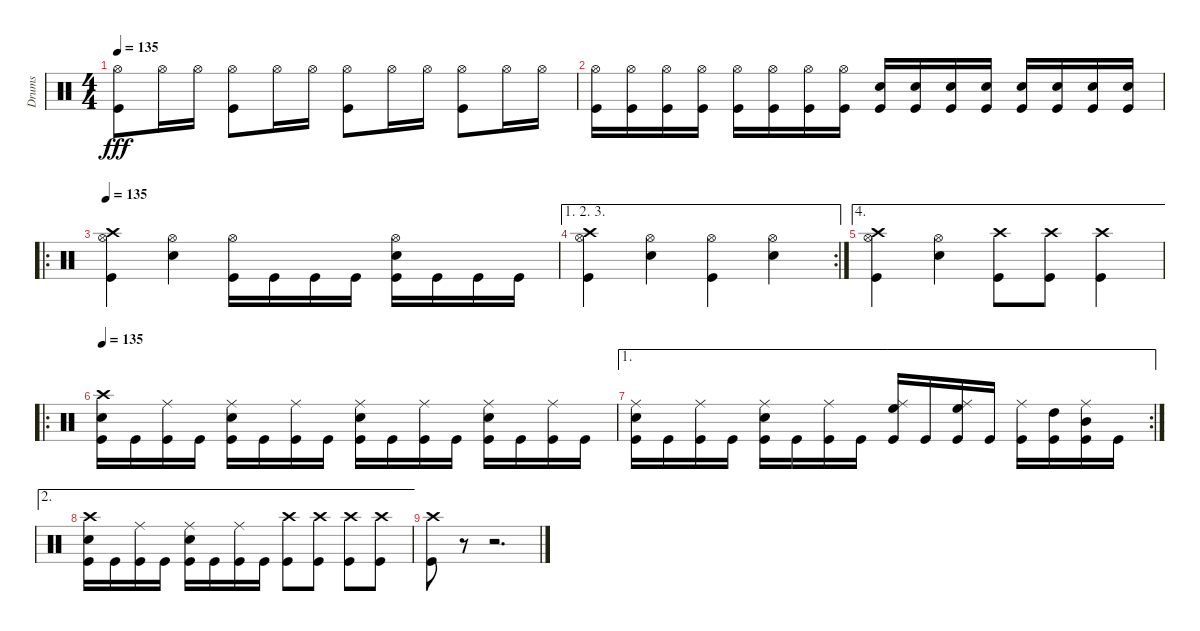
\track ("Drums" "Drums") {instrument percussion}
\staff {score}
\articulation defaults
\ts (4 4)
\tempo 135
\clef neutral
\ks c
("Hi-Hat (open)" "Kick (hit)").8{dy fff} "Hi-Hat (open)".16 "Hi-Hat (open)".16 ("Hi-Hat (open)" "Kick (hit)").8 "Hi-Hat (open)".16 "Hi-Hat (open)".16 ("Hi-Hat (open)" "Kick (hit)").8 "Hi-Hat (open)".16 "Hi-Hat (open)".16 ("Hi-Hat (open)" "Kick (hit)").8 "Hi-Hat (open)".16 "Hi-Hat (open)".16 |
("Hi-Hat (open)" "Kick (hit)").16 ("Hi-Hat (open)" "Kick (hit)").16 ("Hi-Hat (open)" "Kick (hit)").16 ("Hi-Hat (open)" "Kick (hit)").16 ("Hi-Hat (open)" "Kick (hit)").16 ("Hi-Hat (open)" "Kick (hit)").16 ("Hi-Hat (open)" "Kick (hit)").16 ("Hi-Hat (open)" "Kick (hit)").16 ("Snare (hit) 2" "Kick (hit)").16 ("Snare (hit) 2" "Kick (hit)").16 ("Snare (hit) 2" "Kick (hit)").16 ("Snare (hit) 2" "Kick (hit)").16 ("Snare (hit) 2" "Kick (hit)").16 ("Snare (hit) 2" "Kick (hit)").16 ("Snare (hit) 2" "Kick (hit)").16 ("Snare (hit) 2" "Kick (hit)").16 |
\ro
\tempo 135
("Hi-Hat (open)" "Crash high (hit)" "Kick (hit)").4 ("Hi-Hat (open)" "Snare (hit) 2").4 ("Hi-Hat (open)" "Kick (hit)").16 "Kick (hit)".16 "Kick (hit)".16 "Kick (hit)".16 ("Hi-Hat (open)" "Snare (hit) 2" "Kick (hit)").16 "Kick (hit)".16 "Kick (hit)".16 "Kick (hit)".16 |
\ae (1 2 3)
\rc 2
("Hi-Hat (open)" "Crash high (hit)" "Kick (hit)").4 ("Hi-Hat (open)" "Snare (hit) 2").4 ("Hi-Hat (open)" "Kick (hit)").4 ("Hi-Hat (open)" "Snare (hit) 2").4 |
\ae 4
("Hi-Hat (open)" "Crash high (hit)" "Kick (hit)").4 ("Hi-Hat (open)" "Snare (hit) 2").4 ("Crash high (hit)" "Kick (hit)").8 ("Crash high (hit)" "Kick (hit)").8 ("Crash high (hit)" "Kick (hit)").4 |
\ro
\tempo 135
("Snare (hit) 2" "Crash high (hit)" "Kick (hit)").16 "Kick (hit)".16 ("Ride (middle)" "Kick (hit)").16 "Kick (hit)".16 ("Ride (middle)" "Snare (hit) 2" "Kick (hit)").16 "Kick (hit)".16 ("Ride (middle)" "Kick (hit)").16 "Kick (hit)".16 ("Ride (middle)" "Snare (hit) 2" "Kick (hit)").16 "Kick (hit)".16 ("Ride (middle)" "Kick (hit)").16 "Kick (hit)".16 ("Ride (middle)" "Snare (hit) 2" "Kick (hit)").16 "Kick (hit)".16 ("Ride (middle)" "Kick (hit)").16 "Kick (hit)".16 |
\ae 1
\rc 2
("Ride (middle)" "Snare (hit) 2" "Kick (hit)").16 "Kick (hit)".16 ("Ride (middle)" "Kick (hit)").16 "Kick (hit)".16 ("Ride (middle)" "Snare (hit) 2" "Kick (hit)").16 "Kick (hit)".16 ("Ride (middle)" "Kick (hit)").16 "Kick (hit)".16 ("Ride (middle)" "High Floor Tom (hit)" "Kick (hit)").16 "Kick (hit)".16 ("Ride (middle)" "High Floor Tom (hit)" "Kick (hit)").16 "Kick (hit)".16 ("Ride (middle)" "Kick (hit)").16 ("High Tom (hit)" "Kick (hit)").16 ("Ride (middle)" "Mid Tom (hit)" "Kick (hit)").16 "Kick (hit)".16 |
\ae 2
("Snare (hit) 2" "Crash high (hit)" "Kick (hit)").16 "Kick (hit)".16 ("Ride (middle)" "Kick (hit)").16 "Kick (hit)".16 ("Ride (middle)" "Snare (hit) 2" "Kick (hit)").16 "Kick (hit)".16 ("Ride (middle)" "Kick (hit)").16 "Kick (hit)".16 ("Crash high (hit)" "Kick (hit)").8 ("Crash high (hit)" "Kick (hit)").8 ("Crash high (hit)" "Kick (hit)").8 ("Crash high (hit)" "Kick (hit)").8 |
("Crash high (hit)" "Kick (hit)").8 r.8 r.2{d}
